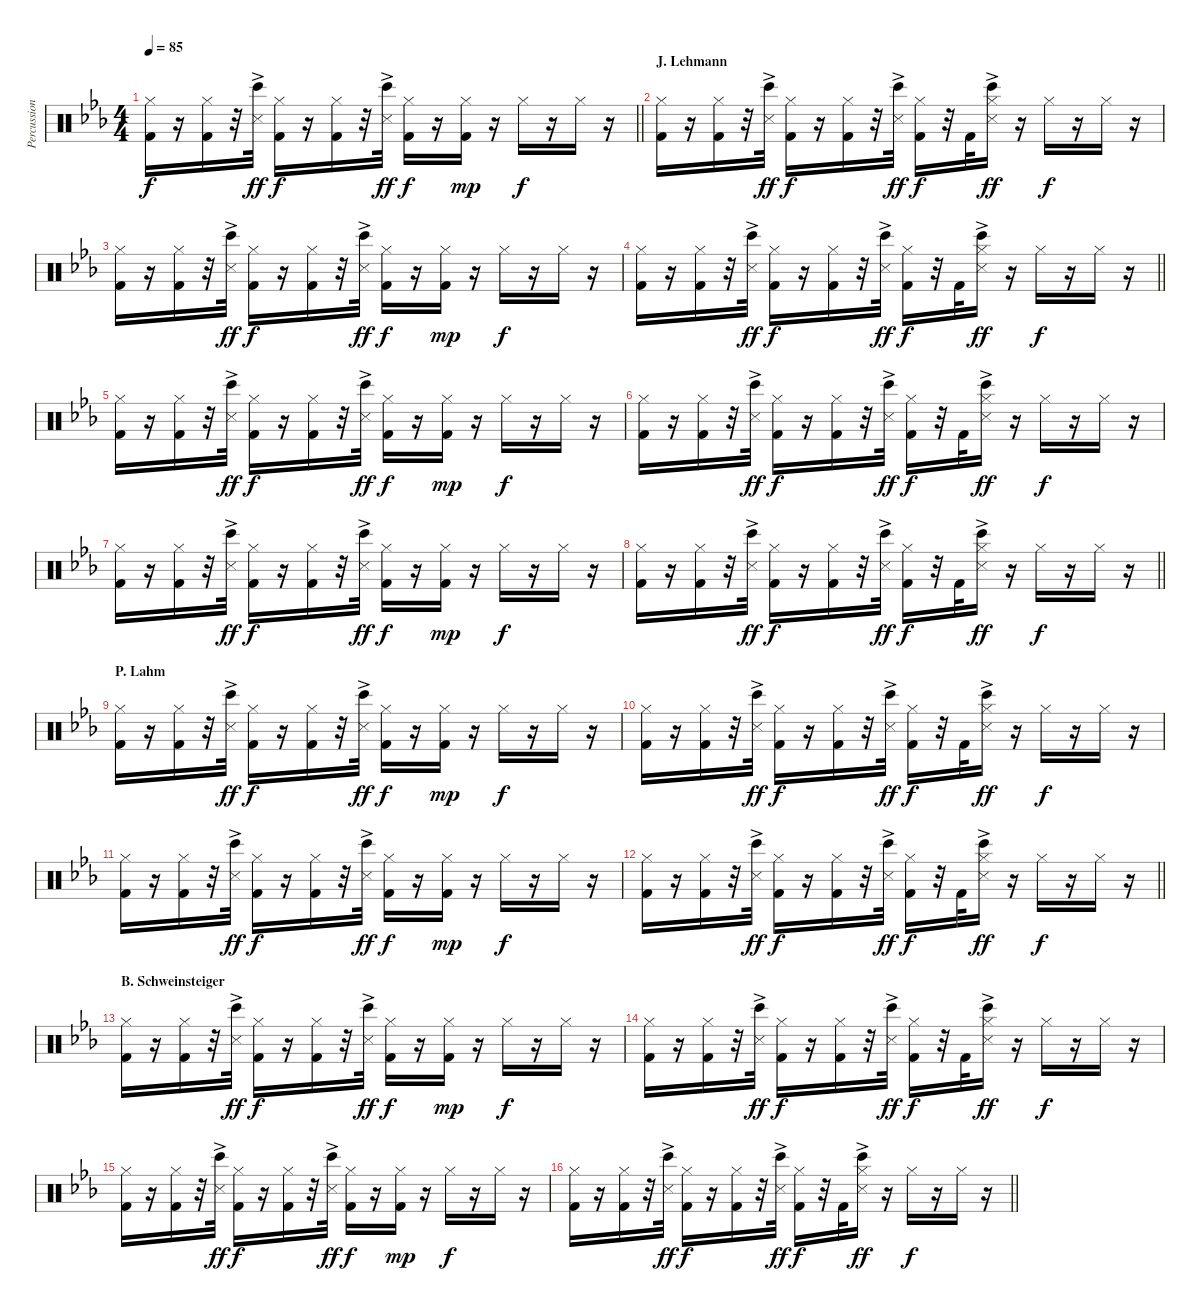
\track ("Percussion" "Percussion") {instrument percussion}
\staff {score}
\articulation defaults
\ts (4 4)
\tempo 85
\clef neutral
\barLineRight lightlight
\ks cminor
("Hi-Hat (closed)" "Kick (hit) 2").16{dy f} r.16 ("Hi-Hat (closed)" "Kick (hit) 2").16 r.32 ("Bongo High (hit)" "Metronome (hit)"{ac}).32{dy ff} ("Hi-Hat (closed)" "Kick (hit) 2").16{dy f} r.16 ("Hi-Hat (closed)" "Kick (hit) 2").16 r.32 ("Bongo High (hit)" "Metronome (hit)"{ac}).32{dy ff} ("Hi-Hat (closed)" "Kick (hit) 2").16{dy f} r.16 ("Hi-Hat (closed)" "Kick (hit) 2").16{dy mp} r.16 "Hi-Hat (closed)".16{dy f} r.16 "Hi-Hat (closed)".16 r.16 |
\section ("" "J. Lehmann")
("Hi-Hat (closed)" "Kick (hit) 2").16 r.16 ("Hi-Hat (closed)" "Kick (hit) 2").16 r.32 ("Bongo High (hit)" "Metronome (hit)"{ac}).32{dy ff} ("Hi-Hat (closed)" "Kick (hit) 2").16{dy f} r.16 ("Hi-Hat (closed)" "Kick (hit) 2").16 r.32 ("Bongo High (hit)" "Metronome (hit)"{ac}).32{dy ff} ("Hi-Hat (closed)" "Kick (hit) 2").16{dy f} r.32 "Kick (hit) 2".32 ("Hi-Hat (closed)" "Bongo High (hit)" "Metronome (hit)"{ac}).16{dy ff} r.16 "Hi-Hat (closed)".16{dy f} r.16 "Hi-Hat (closed)".16 r.16 |
("Hi-Hat (closed)" "Kick (hit) 2").16 r.16 ("Hi-Hat (closed)" "Kick (hit) 2").16 r.32 ("Bongo High (hit)" "Metronome (hit)"{ac}).32{dy ff} ("Hi-Hat (closed)" "Kick (hit) 2").16{dy f} r.16 ("Hi-Hat (closed)" "Kick (hit) 2").16 r.32 ("Bongo High (hit)" "Metronome (hit)"{ac}).32{dy ff} ("Hi-Hat (closed)" "Kick (hit) 2").16{dy f} r.16 ("Hi-Hat (closed)" "Kick (hit) 2").16{dy mp} r.16 "Hi-Hat (closed)".16{dy f} r.16 "Hi-Hat (closed)".16 r.16 |
\barLineRight lightlight
("Hi-Hat (closed)" "Kick (hit) 2").16 r.16 ("Hi-Hat (closed)" "Kick (hit) 2").16 r.32 ("Bongo High (hit)" "Metronome (hit)"{ac}).32{dy ff} ("Hi-Hat (closed)" "Kick (hit) 2").16{dy f} r.16 ("Hi-Hat (closed)" "Kick (hit) 2").16 r.32 ("Bongo High (hit)" "Metronome (hit)"{ac}).32{dy ff} ("Hi-Hat (closed)" "Kick (hit) 2").16{dy f} r.32 "Kick (hit) 2".32 ("Hi-Hat (closed)" "Bongo High (hit)" "Metronome (hit)"{ac}).16{dy ff} r.16 "Hi-Hat (closed)".16{dy f} r.16 "Hi-Hat (closed)".16 r.16 |
("Hi-Hat (closed)" "Kick (hit) 2").16 r.16 ("Hi-Hat (closed)" "Kick (hit) 2").16 r.32 ("Bongo High (hit)" "Metronome (hit)"{ac}).32{dy ff} ("Hi-Hat (closed)" "Kick (hit) 2").16{dy f} r.16 ("Hi-Hat (closed)" "Kick (hit) 2").16 r.32 ("Bongo High (hit)" "Metronome (hit)"{ac}).32{dy ff} ("Hi-Hat (closed)" "Kick (hit) 2").16{dy f} r.16 ("Hi-Hat (closed)" "Kick (hit) 2").16{dy mp} r.16 "Hi-Hat (closed)".16{dy f} r.16 "Hi-Hat (closed)".16 r.16 |
("Hi-Hat (closed)" "Kick (hit) 2").16 r.16 ("Hi-Hat (closed)" "Kick (hit) 2").16 r.32 ("Bongo High (hit)" "Metronome (hit)"{ac}).32{dy ff} ("Hi-Hat (closed)" "Kick (hit) 2").16{dy f} r.16 ("Hi-Hat (closed)" "Kick (hit) 2").16 r.32 ("Bongo High (hit)" "Metronome (hit)"{ac}).32{dy ff} ("Hi-Hat (closed)" "Kick (hit) 2").16{dy f} r.32 "Kick (hit) 2".32 ("Hi-Hat (closed)" "Bongo High (hit)" "Metronome (hit)"{ac}).16{dy ff} r.16 "Hi-Hat (closed)".16{dy f} r.16 "Hi-Hat (closed)".16 r.16 |
("Hi-Hat (closed)" "Kick (hit) 2").16 r.16 ("Hi-Hat (closed)" "Kick (hit) 2").16 r.32 ("Bongo High (hit)" "Metronome (hit)"{ac}).32{dy ff} ("Hi-Hat (closed)" "Kick (hit) 2").16{dy f} r.16 ("Hi-Hat (closed)" "Kick (hit) 2").16 r.32 ("Bongo High (hit)" "Metronome (hit)"{ac}).32{dy ff} ("Hi-Hat (closed)" "Kick (hit) 2").16{dy f} r.16 ("Hi-Hat (closed)" "Kick (hit) 2").16{dy mp} r.16 "Hi-Hat (closed)".16{dy f} r.16 "Hi-Hat (closed)".16 r.16 |
\barLineRight lightlight
("Hi-Hat (closed)" "Kick (hit) 2").16 r.16 ("Hi-Hat (closed)" "Kick (hit) 2").16 r.32 ("Bongo High (hit)" "Metronome (hit)"{ac}).32{dy ff} ("Hi-Hat (closed)" "Kick (hit) 2").16{dy f} r.16 ("Hi-Hat (closed)" "Kick (hit) 2").16 r.32 ("Bongo High (hit)" "Metronome (hit)"{ac}).32{dy ff} ("Hi-Hat (closed)" "Kick (hit) 2").16{dy f} r.32 "Kick (hit) 2".32 ("Hi-Hat (closed)" "Bongo High (hit)" "Metronome (hit)"{ac}).16{dy ff} r.16 "Hi-Hat (closed)".16{dy f} r.16 "Hi-Hat (closed)".16 r.16 |
\section ("" "P. Lahm")
("Hi-Hat (closed)" "Kick (hit) 2").16 r.16 ("Hi-Hat (closed)" "Kick (hit) 2").16 r.32 ("Bongo High (hit)" "Metronome (hit)"{ac}).32{dy ff} ("Hi-Hat (closed)" "Kick (hit) 2").16{dy f} r.16 ("Hi-Hat (closed)" "Kick (hit) 2").16 r.32 ("Bongo High (hit)" "Metronome (hit)"{ac}).32{dy ff} ("Hi-Hat (closed)" "Kick (hit) 2").16{dy f} r.16 ("Hi-Hat (closed)" "Kick (hit) 2").16{dy mp} r.16 "Hi-Hat (closed)".16{dy f} r.16 "Hi-Hat (closed)".16 r.16 |
("Hi-Hat (closed)" "Kick (hit) 2").16 r.16 ("Hi-Hat (closed)" "Kick (hit) 2").16 r.32 ("Bongo High (hit)" "Metronome (hit)"{ac}).32{dy ff} ("Hi-Hat (closed)" "Kick (hit) 2").16{dy f} r.16 ("Hi-Hat (closed)" "Kick (hit) 2").16 r.32 ("Bongo High (hit)" "Metronome (hit)"{ac}).32{dy ff} ("Hi-Hat (closed)" "Kick (hit) 2").16{dy f} r.32 "Kick (hit) 2".32 ("Hi-Hat (closed)" "Bongo High (hit)" "Metronome (hit)"{ac}).16{dy ff} r.16 "Hi-Hat (closed)".16{dy f} r.16 "Hi-Hat (closed)".16 r.16 |
("Hi-Hat (closed)" "Kick (hit) 2").16 r.16 ("Hi-Hat (closed)" "Kick (hit) 2").16 r.32 ("Bongo High (hit)" "Metronome (hit)"{ac}).32{dy ff} ("Hi-Hat (closed)" "Kick (hit) 2").16{dy f} r.16 ("Hi-Hat (closed)" "Kick (hit) 2").16 r.32 ("Bongo High (hit)" "Metronome (hit)"{ac}).32{dy ff} ("Hi-Hat (closed)" "Kick (hit) 2").16{dy f} r.16 ("Hi-Hat (closed)" "Kick (hit) 2").16{dy mp} r.16 "Hi-Hat (closed)".16{dy f} r.16 "Hi-Hat (closed)".16 r.16 |
\barLineRight lightlight
("Hi-Hat (closed)" "Kick (hit) 2").16 r.16 ("Hi-Hat (closed)" "Kick (hit) 2").16 r.32 ("Bongo High (hit)" "Metronome (hit)"{ac}).32{dy ff} ("Hi-Hat (closed)" "Kick (hit) 2").16{dy f} r.16 ("Hi-Hat (closed)" "Kick (hit) 2").16 r.32 ("Bongo High (hit)" "Metronome (hit)"{ac}).32{dy ff} ("Hi-Hat (closed)" "Kick (hit) 2").16{dy f} r.32 "Kick (hit) 2".32 ("Hi-Hat (closed)" "Bongo High (hit)" "Metronome (hit)"{ac}).16{dy ff} r.16 "Hi-Hat (closed)".16{dy f} r.16 "Hi-Hat (closed)".16 r.16 |
\section ("" "B. Schweinsteiger")
("Hi-Hat (closed)" "Kick (hit) 2").16 r.16 ("Hi-Hat (closed)" "Kick (hit) 2").16 r.32 ("Bongo High (hit)" "Metronome (hit)"{ac}).32{dy ff} ("Hi-Hat (closed)" "Kick (hit) 2").16{dy f} r.16 ("Hi-Hat (closed)" "Kick (hit) 2").16 r.32 ("Bongo High (hit)" "Metronome (hit)"{ac}).32{dy ff} ("Hi-Hat (closed)" "Kick (hit) 2").16{dy f} r.16 ("Hi-Hat (closed)" "Kick (hit) 2").16{dy mp} r.16 "Hi-Hat (closed)".16{dy f} r.16 "Hi-Hat (closed)".16 r.16 |
("Hi-Hat (closed)" "Kick (hit) 2").16 r.16 ("Hi-Hat (closed)" "Kick (hit) 2").16 r.32 ("Bongo High (hit)" "Metronome (hit)"{ac}).32{dy ff} ("Hi-Hat (closed)" "Kick (hit) 2").16{dy f} r.16 ("Hi-Hat (closed)" "Kick (hit) 2").16 r.32 ("Bongo High (hit)" "Metronome (hit)"{ac}).32{dy ff} ("Hi-Hat (closed)" "Kick (hit) 2").16{dy f} r.32 "Kick (hit) 2".32 ("Hi-Hat (closed)" "Bongo High (hit)" "Metronome (hit)"{ac}).16{dy ff} r.16 "Hi-Hat (closed)".16{dy f} r.16 "Hi-Hat (closed)".16 r.16 |
("Hi-Hat (closed)" "Kick (hit) 2").16 r.16 ("Hi-Hat (closed)" "Kick (hit) 2").16 r.32 ("Bongo High (hit)" "Metronome (hit)"{ac}).32{dy ff} ("Hi-Hat (closed)" "Kick (hit) 2").16{dy f} r.16 ("Hi-Hat (closed)" "Kick (hit) 2").16 r.32 ("Bongo High (hit)" "Metronome (hit)"{ac}).32{dy ff} ("Hi-Hat (closed)" "Kick (hit) 2").16{dy f} r.16 ("Hi-Hat (closed)" "Kick (hit) 2").16{dy mp} r.16 "Hi-Hat (closed)".16{dy f} r.16 "Hi-Hat (closed)".16 r.16 |
\barLineRight lightlight
("Hi-Hat (closed)" "Kick (hit) 2").16 r.16 ("Hi-Hat (closed)" "Kick (hit) 2").16 r.32 ("Bongo High (hit)" "Metronome (hit)"{ac}).32{dy ff} ("Hi-Hat (closed)" "Kick (hit) 2").16{dy f} r.16 ("Hi-Hat (closed)" "Kick (hit) 2").16 r.32 ("Bongo High (hit)" "Metronome (hit)"{ac}).32{dy ff} ("Hi-Hat (closed)" "Kick (hit) 2").16{dy f} r.32 "Kick (hit) 2".32 ("Hi-Hat (closed)" "Bongo High (hit)" "Metronome (hit)"{ac}).16{dy ff} r.16 "Hi-Hat (closed)".16{dy f} r.16 "Hi-Hat (closed)".16 r.16
